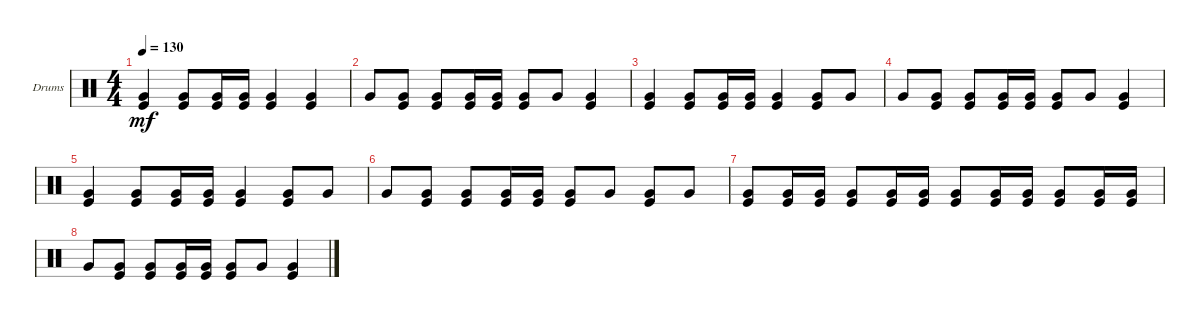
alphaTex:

\defaultSystemsLayout 4
\bracketExtendMode groupsimilarinstruments
\firstSystemTrackNameOrientation horizontal
\otherSystemsTrackNameOrientation horizontal
\track ("Drumkit" "Drums") {instrument percussion}
\staff {score}
\articulation defaults
\ts (4 4)
\tempo 130
\clef neutral
\scale
0.474178
\ks c
("Kick (hit)" "Very Low Tom (hit)").4{dy mf} ("Kick (hit)" "Very Low Tom (hit)").8 ("Kick (hit)" "Very Low Tom (hit)").16 ("Kick (hit)" "Very Low Tom (hit)").16 ("Kick (hit)" "Very Low Tom (hit)").4 ("Kick (hit)" "Very Low Tom (hit)").4 |
\scale
0.262911 "Very Low Tom (hit)".8 ("Kick (hit)" "Very Low Tom (hit)").8 ("Kick (hit)" "Very Low Tom (hit)").8 ("Kick (hit)" "Very Low Tom (hit)").16 ("Kick (hit)" "Very Low Tom (hit)").16 ("Kick (hit)" "Very Low Tom (hit)").8 "Very Low Tom (hit)".8 ("Kick (hit)" "Very Low Tom (hit)").4 |
\scale
0.262911 ("Kick (hit)" "Very Low Tom (hit)").4 ("Kick (hit)" "Very Low Tom (hit)").8 ("Kick (hit)" "Very Low Tom (hit)").16 ("Kick (hit)" "Very Low Tom (hit)").16 ("Kick (hit)" "Very Low Tom (hit)").4 ("Kick (hit)" "Very Low Tom (hit)").8 "Very Low Tom (hit)".8 |
\scale
0.333333 "Very Low Tom (hit)".8 ("Kick (hit)" "Very Low Tom (hit)").8 ("Kick (hit)" "Very Low Tom (hit)").8 ("Kick (hit)" "Very Low Tom (hit)").16 ("Kick (hit)" "Very Low Tom (hit)").16 ("Kick (hit)" "Very Low Tom (hit)").8 "Very Low Tom (hit)".8 ("Kick (hit)" "Very Low Tom (hit)").4 |
\scale
0.333333 ("Kick (hit)" "Very Low Tom (hit)").4 ("Kick (hit)" "Very Low Tom (hit)").8 ("Kick (hit)" "Very Low Tom (hit)").16 ("Kick (hit)" "Very Low Tom (hit)").16 ("Kick (hit)" "Very Low Tom (hit)").4 ("Kick (hit)" "Very Low Tom (hit)").8 "Very Low Tom (hit)".8 |
\scale
0.333333 "Very Low Tom (hit)".8 ("Kick (hit)" "Very Low Tom (hit)").8 ("Kick (hit)" "Very Low Tom (hit)").8 ("Kick (hit)" "Very Low Tom (hit)").16 ("Kick (hit)" "Very Low Tom (hit)").16 ("Kick (hit)" "Very Low Tom (hit)").8 "Very Low Tom (hit)".8 ("Kick (hit)" "Very Low Tom (hit)").8 "Very Low Tom (hit)".8 |
("Kick (hit)" "Very Low Tom (hit)").8 ("Kick (hit)" "Very Low Tom (hit)").16 ("Kick (hit)" "Very Low Tom (hit)").16 ("Kick (hit)" "Very Low Tom (hit)").8 ("Kick (hit)" "Very Low Tom (hit)").16 ("Kick (hit)" "Very Low Tom (hit)").16 ("Kick (hit)" "Very Low Tom (hit)").8 ("Kick (hit)" "Very Low Tom (hit)").16 ("Kick (hit)" "Very Low Tom (hit)").16 ("Kick (hit)" "Very Low Tom (hit)").8 ("Kick (hit)" "Very Low Tom (hit)").16 ("Kick (hit)" "Very Low Tom (hit)").16 |
"Very Low Tom (hit)".8 ("Kick (hit)" "Very Low Tom (hit)").8 ("Kick (hit)" "Very Low Tom (hit)").8 ("Kick (hit)" "Very Low Tom (hit)").16 ("Kick (hit)" "Very Low Tom (hit)").16 ("Kick (hit)" "Very Low Tom (hit)").8 "Very Low Tom (hit)".8 ("Kick (hit)" "Very Low Tom (hit)").4
